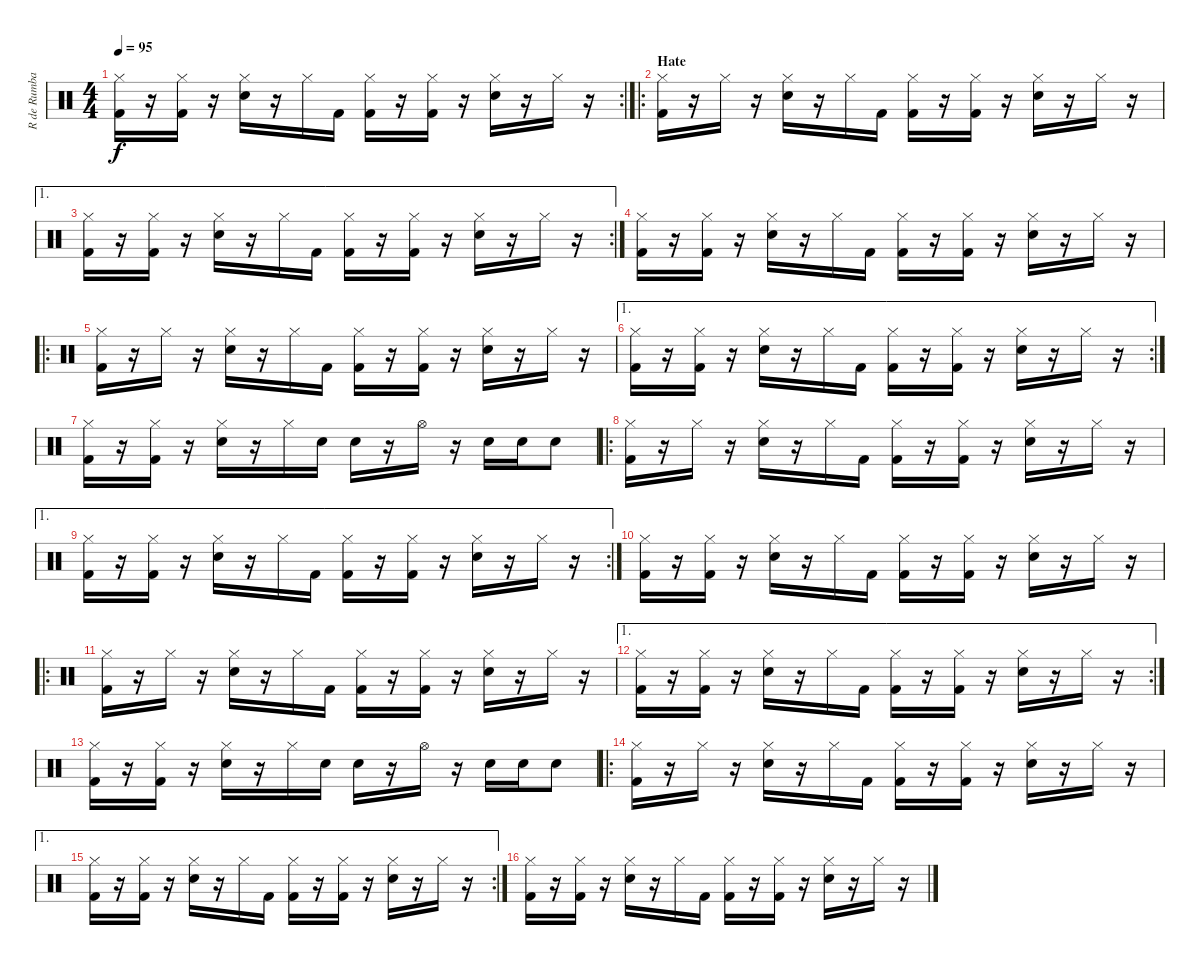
\track ("R de Rumba" "R de Rumba") {instrument percussion}
\staff {score}
\articulation defaults
\rc 2
\ts (4 4)
\tempo 95
\clef neutral
\ks c
("Hi-Hat (closed)" "Kick (hit) 2").16{dy f} r.16 ("Hi-Hat (closed)" "Kick (hit) 2").16 r.16 ("Hi-Hat (closed)" "Snare (hit) 2").16 r.16 "Hi-Hat (closed)".16 "Kick (hit) 2".16 ("Hi-Hat (closed)" "Kick (hit) 2").16 r.16 ("Hi-Hat (closed)" "Kick (hit) 2").16 r.16 ("Hi-Hat (closed)" "Snare (hit) 2").16 r.16 "Hi-Hat (closed)".16 r.16 |
\ro
\section ("" "Hate")
("Hi-Hat (closed)" "Kick (hit) 2").16 r.16 "Hi-Hat (closed)".16 r.16 ("Hi-Hat (closed)" "Snare (hit) 2").16 r.16 "Hi-Hat (closed)".16 "Kick (hit) 2".16 ("Hi-Hat (closed)" "Kick (hit) 2").16 r.16 ("Hi-Hat (closed)" "Kick (hit) 2").16 r.16 ("Hi-Hat (closed)" "Snare (hit) 2").16 r.16 "Hi-Hat (closed)".16 r.16 |
\ae 1
\rc 2
("Hi-Hat (closed)" "Kick (hit) 2").16 r.16 ("Hi-Hat (closed)" "Kick (hit) 2").16 r.16 ("Hi-Hat (closed)" "Snare (hit) 2").16 r.16 "Hi-Hat (closed)".16 "Kick (hit) 2".16 ("Hi-Hat (closed)" "Kick (hit) 2").16 r.16 ("Hi-Hat (closed)" "Kick (hit) 2").16 r.16 ("Hi-Hat (closed)" "Snare (hit) 2").16 r.16 "Hi-Hat (closed)".16 r.16 |
("Hi-Hat (closed)" "Kick (hit) 2").16 r.16 ("Hi-Hat (closed)" "Kick (hit) 2").16 r.16 ("Hi-Hat (closed)" "Snare (hit) 2").16 r.16 "Hi-Hat (closed)".16 "Kick (hit) 2".16 ("Hi-Hat (closed)" "Kick (hit) 2").16 r.16 ("Hi-Hat (closed)" "Kick (hit) 2").16 r.16 ("Hi-Hat (closed)" "Snare (hit) 2").16 r.16 "Hi-Hat (closed)".16 r.16 |
\ro
("Hi-Hat (closed)" "Kick (hit) 2").16 r.16 "Hi-Hat (closed)".16 r.16 ("Hi-Hat (closed)" "Snare (hit) 2").16 r.16 "Hi-Hat (closed)".16 "Kick (hit) 2".16 ("Hi-Hat (closed)" "Kick (hit) 2").16 r.16 ("Hi-Hat (closed)" "Kick (hit) 2").16 r.16 ("Hi-Hat (closed)" "Snare (hit) 2").16 r.16 "Hi-Hat (closed)".16 r.16 |
\ae 1
\rc 2
("Hi-Hat (closed)" "Kick (hit) 2").16 r.16 ("Hi-Hat (closed)" "Kick (hit) 2").16 r.16 ("Hi-Hat (closed)" "Snare (hit) 2").16 r.16 "Hi-Hat (closed)".16 "Kick (hit) 2".16 ("Hi-Hat (closed)" "Kick (hit) 2").16 r.16 ("Hi-Hat (closed)" "Kick (hit) 2").16 r.16 ("Hi-Hat (closed)" "Snare (hit) 2").16 r.16 "Hi-Hat (closed)".16 r.16 |
("Hi-Hat (closed)" "Kick (hit) 2").16 r.16 ("Hi-Hat (closed)" "Kick (hit) 2").16 r.16 ("Hi-Hat (closed)" "Snare (hit) 2").16 r.16 "Hi-Hat (closed)".16 "Snare (hit) 2".16 "Snare (hit) 2".16 r.16 "Hi-Hat (open)".16 r.16 "Snare (hit) 2".16 "Snare (hit) 2".16 "Snare (hit) 2".8 |
\ro
("Hi-Hat (closed)" "Kick (hit) 2").16 r.16 "Hi-Hat (closed)".16 r.16 ("Hi-Hat (closed)" "Snare (hit) 2").16 r.16 "Hi-Hat (closed)".16 "Kick (hit) 2".16 ("Hi-Hat (closed)" "Kick (hit) 2").16 r.16 ("Hi-Hat (closed)" "Kick (hit) 2").16 r.16 ("Hi-Hat (closed)" "Snare (hit) 2").16 r.16 "Hi-Hat (closed)".16 r.16 |
\ae 1
\rc 2
("Hi-Hat (closed)" "Kick (hit) 2").16 r.16 ("Hi-Hat (closed)" "Kick (hit) 2").16 r.16 ("Hi-Hat (closed)" "Snare (hit) 2").16 r.16 "Hi-Hat (closed)".16 "Kick (hit) 2".16 ("Hi-Hat (closed)" "Kick (hit) 2").16 r.16 ("Hi-Hat (closed)" "Kick (hit) 2").16 r.16 ("Hi-Hat (closed)" "Snare (hit) 2").16 r.16 "Hi-Hat (closed)".16 r.16 |
("Hi-Hat (closed)" "Kick (hit) 2").16 r.16 ("Hi-Hat (closed)" "Kick (hit) 2").16 r.16 ("Hi-Hat (closed)" "Snare (hit) 2").16 r.16 "Hi-Hat (closed)".16 "Kick (hit) 2".16 ("Hi-Hat (closed)" "Kick (hit) 2").16 r.16 ("Hi-Hat (closed)" "Kick (hit) 2").16 r.16 ("Hi-Hat (closed)" "Snare (hit) 2").16 r.16 "Hi-Hat (closed)".16 r.16 |
\ro
("Hi-Hat (closed)" "Kick (hit) 2").16 r.16 "Hi-Hat (closed)".16 r.16 ("Hi-Hat (closed)" "Snare (hit) 2").16 r.16 "Hi-Hat (closed)".16 "Kick (hit) 2".16 ("Hi-Hat (closed)" "Kick (hit) 2").16 r.16 ("Hi-Hat (closed)" "Kick (hit) 2").16 r.16 ("Hi-Hat (closed)" "Snare (hit) 2").16 r.16 "Hi-Hat (closed)".16 r.16 |
\ae 1
\rc 2
("Hi-Hat (closed)" "Kick (hit) 2").16 r.16 ("Hi-Hat (closed)" "Kick (hit) 2").16 r.16 ("Hi-Hat (closed)" "Snare (hit) 2").16 r.16 "Hi-Hat (closed)".16 "Kick (hit) 2".16 ("Hi-Hat (closed)" "Kick (hit) 2").16 r.16 ("Hi-Hat (closed)" "Kick (hit) 2").16 r.16 ("Hi-Hat (closed)" "Snare (hit) 2").16 r.16 "Hi-Hat (closed)".16 r.16 |
("Hi-Hat (closed)" "Kick (hit) 2").16 r.16 ("Hi-Hat (closed)" "Kick (hit) 2").16 r.16 ("Hi-Hat (closed)" "Snare (hit) 2").16 r.16 "Hi-Hat (closed)".16 "Snare (hit) 2".16 "Snare (hit) 2".16 r.16 "Hi-Hat (open)".16 r.16 "Snare (hit) 2".16 "Snare (hit) 2".16 "Snare (hit) 2".8 |
\ro
("Hi-Hat (closed)" "Kick (hit) 2").16 r.16 "Hi-Hat (closed)".16 r.16 ("Hi-Hat (closed)" "Snare (hit) 2").16 r.16 "Hi-Hat (closed)".16 "Kick (hit) 2".16 ("Hi-Hat (closed)" "Kick (hit) 2").16 r.16 ("Hi-Hat (closed)" "Kick (hit) 2").16 r.16 ("Hi-Hat (closed)" "Snare (hit) 2").16 r.16 "Hi-Hat (closed)".16 r.16 |
\ae 1
\rc 2
("Hi-Hat (closed)" "Kick (hit) 2").16 r.16 ("Hi-Hat (closed)" "Kick (hit) 2").16 r.16 ("Hi-Hat (closed)" "Snare (hit) 2").16 r.16 "Hi-Hat (closed)".16 "Kick (hit) 2".16 ("Hi-Hat (closed)" "Kick (hit) 2").16 r.16 ("Hi-Hat (closed)" "Kick (hit) 2").16 r.16 ("Hi-Hat (closed)" "Snare (hit) 2").16 r.16 "Hi-Hat (closed)".16 r.16 |
("Hi-Hat (closed)" "Kick (hit) 2").16 r.16 ("Hi-Hat (closed)" "Kick (hit) 2").16 r.16 ("Hi-Hat (closed)" "Snare (hit) 2").16 r.16 "Hi-Hat (closed)".16 "Kick (hit) 2".16 ("Hi-Hat (closed)" "Kick (hit) 2").16 r.16 ("Hi-Hat (closed)" "Kick (hit) 2").16 r.16 ("Hi-Hat (closed)" "Snare (hit) 2").16 r.16 "Hi-Hat (closed)".16 r.16
